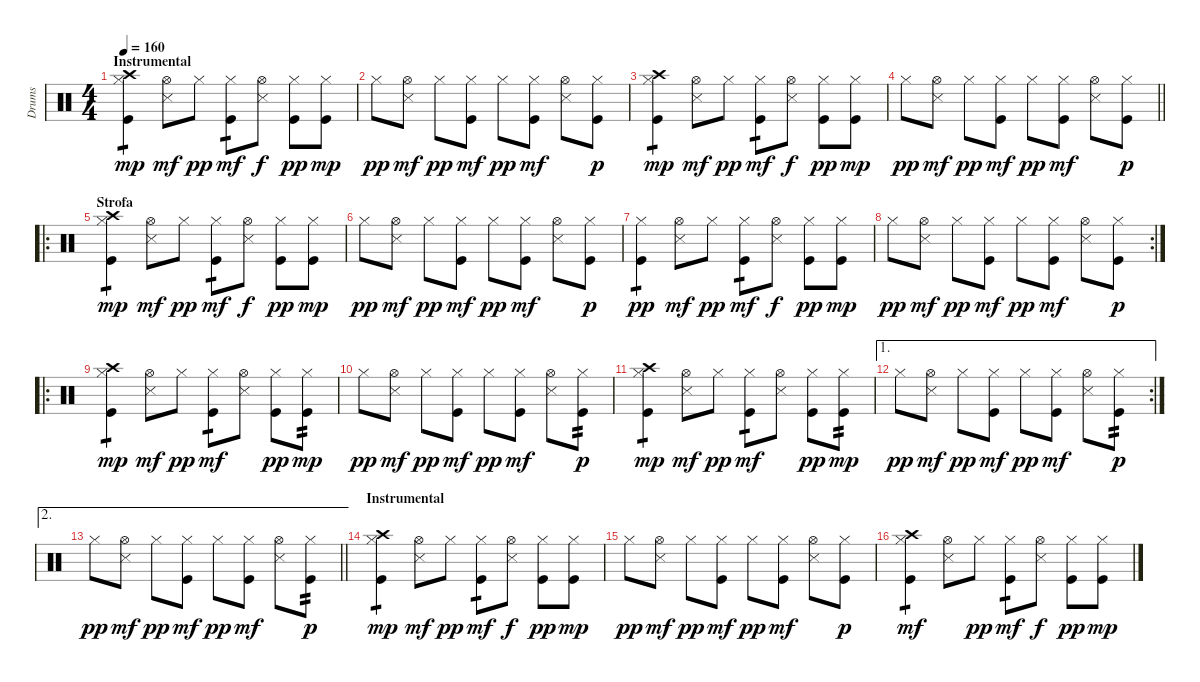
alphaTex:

\track ("Drums" "Drums") {instrument percussion}
\staff {score}
\articulation defaults
\ts (4 4)
\section ("" "Instrumental")
\tempo 160
\clef neutral
\ks c
("Kick (hit)" "Hi-Hat (closed)" "Crash high (hit)").4{tp 1 dy mp} ("Snare (side stick) 3" "Hi-Hat (open)").8{dy mf} "Hi-Hat (closed)".8{dy pp} ("Kick (hit)" "Hi-Hat (closed)").8{tp 1 dy mf} ("Snare (side stick) 3" "Hi-Hat (open)").8{dy f} ("Kick (hit)" "Hi-Hat (closed)").8{dy pp} ("Kick (hit)" "Hi-Hat (closed)").8{dy mp} |
"Hi-Hat (closed)".8{dy pp} ("Snare (side stick) 3" "Hi-Hat (open)").8{dy mf} "Hi-Hat (closed)".8{dy pp} ("Kick (hit)" "Hi-Hat (closed)").8{dy mf} "Hi-Hat (closed)".8{dy pp} ("Kick (hit)" "Hi-Hat (closed)").8{dy mf} ("Snare (side stick) 3" "Hi-Hat (open)").8 ("Kick (hit)" "Hi-Hat (closed)").8{dy p} |
("Kick (hit)" "Hi-Hat (closed)" "Crash high (hit)").4{tp 1 dy mp} ("Snare (side stick) 3" "Hi-Hat (open)").8{dy mf} "Hi-Hat (closed)".8{dy pp} ("Kick (hit)" "Hi-Hat (closed)").8{tp 1 dy mf} ("Snare (side stick) 3" "Hi-Hat (open)").8{dy f} ("Kick (hit)" "Hi-Hat (closed)").8{dy pp} ("Kick (hit)" "Hi-Hat (closed)").8{dy mp} |
\barLineRight lightlight "Hi-Hat (closed)".8{dy pp}
("Snare (side stick) 3" "Hi-Hat (open)").8{dy mf} "Hi-Hat (closed)".8{dy pp} ("Kick (hit)" "Hi-Hat (closed)").8{dy mf} "Hi-Hat (closed)".8{dy pp} ("Kick (hit)" "Hi-Hat (closed)").8{dy mf} ("Snare (side stick) 3" "Hi-Hat (open)").8 ("Kick (hit)" "Hi-Hat (closed)").8{dy p} |
\ro
\section ("" "Strofa")
("Kick (hit)" "Hi-Hat (closed)" "Crash high (hit)").4{tp 1 dy mp} ("Snare (side stick) 3" "Hi-Hat (open)").8{dy mf} "Hi-Hat (closed)".8{dy pp} ("Kick (hit)" "Hi-Hat (closed)").8{tp 1 dy mf} ("Snare (side stick) 3" "Hi-Hat (open)").8{dy f} ("Kick (hit)" "Hi-Hat (closed)").8{dy pp} ("Kick (hit)" "Hi-Hat (closed)").8{dy mp} |
"Hi-Hat (closed)".8{dy pp} ("Snare (side stick) 3" "Hi-Hat (open)").8{dy mf} "Hi-Hat (closed)".8{dy pp} ("Kick (hit)" "Hi-Hat (closed)").8{dy mf} "Hi-Hat (closed)".8{dy pp} ("Kick (hit)" "Hi-Hat (closed)").8{dy mf} ("Snare (side stick) 3" "Hi-Hat (open)").8 ("Kick (hit)" "Hi-Hat (closed)").8{dy p} |
("Kick (hit)" "Hi-Hat (closed)").4{tp 1 dy pp} ("Snare (side stick) 3" "Hi-Hat (open)").8{dy mf} "Hi-Hat (closed)".8{dy pp} ("Kick (hit)" "Hi-Hat (closed)").8{tp 1 dy mf} ("Snare (side stick) 3" "Hi-Hat (open)").8{dy f} ("Kick (hit)" "Hi-Hat (closed)").8{dy pp} ("Kick (hit)" "Hi-Hat (closed)").8{dy mp} |
\rc 2 "Hi-Hat (closed)".8{dy pp}
("Snare (side stick) 3" "Hi-Hat (open)").8{dy mf} "Hi-Hat (closed)".8{dy pp} ("Kick (hit)" "Hi-Hat (closed)").8{dy mf} "Hi-Hat (closed)".8{dy pp} ("Kick (hit)" "Hi-Hat (closed)").8{dy mf} ("Snare (side stick) 3" "Hi-Hat (open)").8 ("Kick (hit)" "Hi-Hat (closed)").8{dy p} |
\ro
("Kick (hit)" "Hi-Hat (closed)" "Crash high (hit)").4{tp 1 dy mp} ("Snare (side stick) 3" "Hi-Hat (open)").8{dy mf} "Hi-Hat (closed)".8{dy pp} ("Kick (hit)" "Hi-Hat (closed)").8{tp 1 dy mf} ("Snare (side stick) 3" "Hi-Hat (open)").8 ("Kick (hit)" "Hi-Hat (closed)").8{dy pp} ("Kick (hit)" "Hi-Hat (closed)").8{tp 2 dy mp} |
"Hi-Hat (closed)".8{dy pp} ("Snare (side stick) 3" "Hi-Hat (open)").8{dy mf} "Hi-Hat (closed)".8{dy pp} ("Kick (hit)" "Hi-Hat (closed)").8{dy mf} "Hi-Hat (closed)".8{dy pp} ("Kick (hit)" "Hi-Hat (closed)").8{dy mf} ("Snare (side stick) 3" "Hi-Hat (open)").8 ("Kick (hit)" "Hi-Hat (closed)").8{tp 2 dy p} |
("Kick (hit)" "Hi-Hat (closed)" "Crash high (hit)").4{tp 1 dy mp} ("Snare (side stick) 3" "Hi-Hat (open)").8{dy mf} "Hi-Hat (closed)".8{dy pp} ("Kick (hit)" "Hi-Hat (closed)").8{tp 1 dy mf} ("Snare (side stick) 3" "Hi-Hat (open)").8 ("Kick (hit)" "Hi-Hat (closed)").8{dy pp} ("Kick (hit)" "Hi-Hat (closed)").8{tp 2 dy mp} |
\ae 1
\rc 2 "Hi-Hat (closed)".8{dy pp}
("Snare (side stick) 3" "Hi-Hat (open)").8{dy mf} "Hi-Hat (closed)".8{dy pp} ("Kick (hit)" "Hi-Hat (closed)").8{dy mf} "Hi-Hat (closed)".8{dy pp} ("Kick (hit)" "Hi-Hat (closed)").8{dy mf} ("Snare (side stick) 3" "Hi-Hat (open)").8 ("Kick (hit)" "Hi-Hat (closed)").8{tp 2 dy p} |
\ae 2
\barLineRight lightlight "Hi-Hat (closed)".8{dy pp}
("Snare (side stick) 3" "Hi-Hat (open)").8{dy mf} "Hi-Hat (closed)".8{dy pp} ("Kick (hit)" "Hi-Hat (closed)").8{dy mf} "Hi-Hat (closed)".8{dy pp} ("Kick (hit)" "Hi-Hat (closed)").8{dy mf} ("Snare (side stick) 3" "Hi-Hat (open)").8 ("Kick (hit)" "Hi-Hat (closed)").8{tp 2 dy p} |
\section ("" "Instrumental")
("Kick (hit)" "Hi-Hat (closed)" "Crash high (hit)").4{tp 1 dy mp} ("Snare (side stick) 3" "Hi-Hat (open)").8{dy mf} "Hi-Hat (closed)".8{dy pp} ("Kick (hit)" "Hi-Hat (closed)").8{tp 1 dy mf} ("Snare (side stick) 3" "Hi-Hat (open)").8{dy f} ("Kick (hit)" "Hi-Hat (closed)").8{dy pp} ("Kick (hit)" "Hi-Hat (closed)").8{dy mp} |
"Hi-Hat (closed)".8{dy pp} ("Snare (side stick) 3" "Hi-Hat (open)").8{dy mf} "Hi-Hat (closed)".8{dy pp} ("Kick (hit)" "Hi-Hat (closed)").8{dy mf} "Hi-Hat (closed)".8{dy pp} ("Kick (hit)" "Hi-Hat (closed)").8{dy mf} ("Snare (side stick) 3" "Hi-Hat (open)").8 ("Kick (hit)" "Hi-Hat (closed)").8{dy p} |
("Kick (hit)" "Hi-Hat (closed)" "Crash high (hit)").4{tp 1 dy mf} ("Snare (side stick) 3" "Hi-Hat (open)").8 "Hi-Hat (closed)".8{dy pp} ("Kick (hit)" "Hi-Hat (closed)").8{tp 1 dy mf} ("Snare (side stick) 3" "Hi-Hat (open)").8{dy f} ("Kick (hit)" "Hi-Hat (closed)").8{dy pp} ("Kick (hit)" "Hi-Hat (closed)").8{dy mp}
